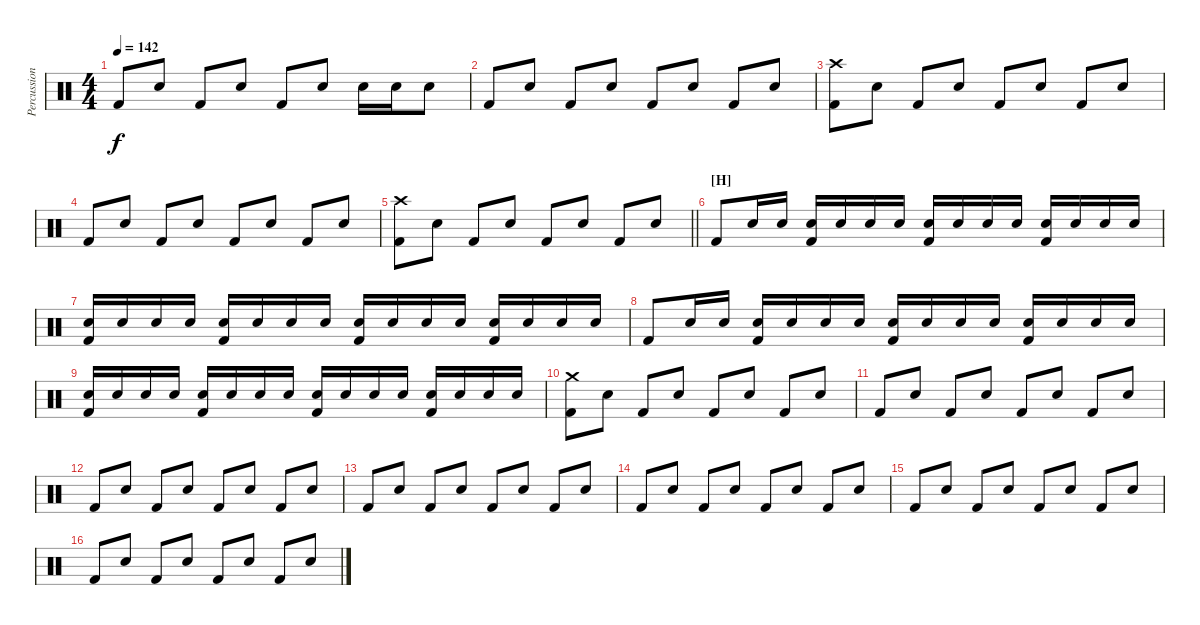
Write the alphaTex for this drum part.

\track ("Percussions" "Percussion") {instrument percussion}
\staff {score}
\articulation defaults
\ts (4 4)
\tempo 142
\clef neutral
\ks c "Kick (hit) 2".8{dy f} "Electric Snare (hit)".8 "Kick (hit) 2".8 "Electric Snare (hit)".8 "Kick (hit) 2".8 "Electric Snare (hit)".8 "Electric Snare (hit)".16 "Electric Snare (hit)".16 "Electric Snare (hit)".8
|
"Kick (hit) 2".8 "Electric Snare (hit)".8 "Kick (hit) 2".8 "Electric Snare (hit)".8 "Kick (hit) 2".8 "Electric Snare (hit)".8 "Kick (hit) 2".8 "Electric Snare (hit)".8 |
("Crash high (hit)" "Kick (hit) 2").8 "Electric Snare (hit)".8 "Kick (hit) 2".8 "Electric Snare (hit)".8 "Kick (hit) 2".8 "Electric Snare (hit)".8 "Kick (hit) 2".8 "Electric Snare (hit)".8 |
"Kick (hit) 2".8 "Electric Snare (hit)".8 "Kick (hit) 2".8 "Electric Snare (hit)".8 "Kick (hit) 2".8 "Electric Snare (hit)".8 "Kick (hit) 2".8 "Electric Snare (hit)".8 |
\barLineRight lightlight
("Crash high (hit)" "Kick (hit) 2").8 "Electric Snare (hit)".8 "Kick (hit) 2".8 "Electric Snare (hit)".8 "Kick (hit) 2".8 "Electric Snare (hit)".8 "Kick (hit) 2".8 "Electric Snare (hit)".8 |
\section ("" "[H]")
"Kick (hit) 2".8 "Electric Snare (hit)".16 "Electric Snare (hit)".16 ("Electric Snare (hit)" "Kick (hit) 2").16 "Electric Snare (hit)".16 "Electric Snare (hit)".16 "Electric Snare (hit)".16 ("Electric Snare (hit)" "Kick (hit) 2").16 "Electric Snare (hit)".16 "Electric Snare (hit)".16 "Electric Snare (hit)".16 ("Electric Snare (hit)" "Kick (hit) 2").16 "Electric Snare (hit)".16 "Electric Snare (hit)".16 "Electric Snare (hit)".16 |
("Electric Snare (hit)" "Kick (hit) 2").16 "Electric Snare (hit)".16 "Electric Snare (hit)".16 "Electric Snare (hit)".16 ("Electric Snare (hit)" "Kick (hit) 2").16 "Electric Snare (hit)".16 "Electric Snare (hit)".16 "Electric Snare (hit)".16 ("Electric Snare (hit)" "Kick (hit) 2").16 "Electric Snare (hit)".16 "Electric Snare (hit)".16 "Electric Snare (hit)".16 ("Electric Snare (hit)" "Kick (hit) 2").16 "Electric Snare (hit)".16 "Electric Snare (hit)".16 "Electric Snare (hit)".16 |
"Kick (hit) 2".8 "Electric Snare (hit)".16 "Electric Snare (hit)".16 ("Electric Snare (hit)" "Kick (hit) 2").16 "Electric Snare (hit)".16 "Electric Snare (hit)".16 "Electric Snare (hit)".16 ("Electric Snare (hit)" "Kick (hit) 2").16 "Electric Snare (hit)".16 "Electric Snare (hit)".16 "Electric Snare (hit)".16 ("Electric Snare (hit)" "Kick (hit) 2").16 "Electric Snare (hit)".16 "Electric Snare (hit)".16 "Electric Snare (hit)".16 |
("Electric Snare (hit)" "Kick (hit) 2").16 "Electric Snare (hit)".16 "Electric Snare (hit)".16 "Electric Snare (hit)".16 ("Electric Snare (hit)" "Kick (hit) 2").16 "Electric Snare (hit)".16 "Electric Snare (hit)".16 "Electric Snare (hit)".16 ("Electric Snare (hit)" "Kick (hit) 2").16 "Electric Snare (hit)".16 "Electric Snare (hit)".16 "Electric Snare (hit)".16 ("Electric Snare (hit)" "Kick (hit) 2").16 "Electric Snare (hit)".16 "Electric Snare (hit)".16 "Electric Snare (hit)".16 |
("Crash medium (hit)" "Kick (hit) 2").8 "Electric Snare (hit)".8 "Kick (hit) 2".8 "Electric Snare (hit)".8 "Kick (hit) 2".8 "Electric Snare (hit)".8 "Kick (hit) 2".8 "Electric Snare (hit)".8 |
"Kick (hit) 2".8 "Electric Snare (hit)".8 "Kick (hit) 2".8 "Electric Snare (hit)".8 "Kick (hit) 2".8 "Electric Snare (hit)".8 "Kick (hit) 2".8 "Electric Snare (hit)".8 |
"Kick (hit) 2".8 "Electric Snare (hit)".8 "Kick (hit) 2".8 "Electric Snare (hit)".8 "Kick (hit) 2".8 "Electric Snare (hit)".8 "Kick (hit) 2".8 "Electric Snare (hit)".8 |
"Kick (hit) 2".8 "Electric Snare (hit)".8 "Kick (hit) 2".8 "Electric Snare (hit)".8 "Kick (hit) 2".8 "Electric Snare (hit)".8 "Kick (hit) 2".8 "Electric Snare (hit)".8 |
"Kick (hit) 2".8 "Electric Snare (hit)".8 "Kick (hit) 2".8 "Electric Snare (hit)".8 "Kick (hit) 2".8 "Electric Snare (hit)".8 "Kick (hit) 2".8 "Electric Snare (hit)".8 |
"Kick (hit) 2".8 "Electric Snare (hit)".8 "Kick (hit) 2".8 "Electric Snare (hit)".8 "Kick (hit) 2".8 "Electric Snare (hit)".8 "Kick (hit) 2".8 "Electric Snare (hit)".8 |
"Kick (hit) 2".8 "Electric Snare (hit)".8 "Kick (hit) 2".8 "Electric Snare (hit)".8 "Kick (hit) 2".8 "Electric Snare (hit)".8 "Kick (hit) 2".8 "Electric Snare (hit)".8
